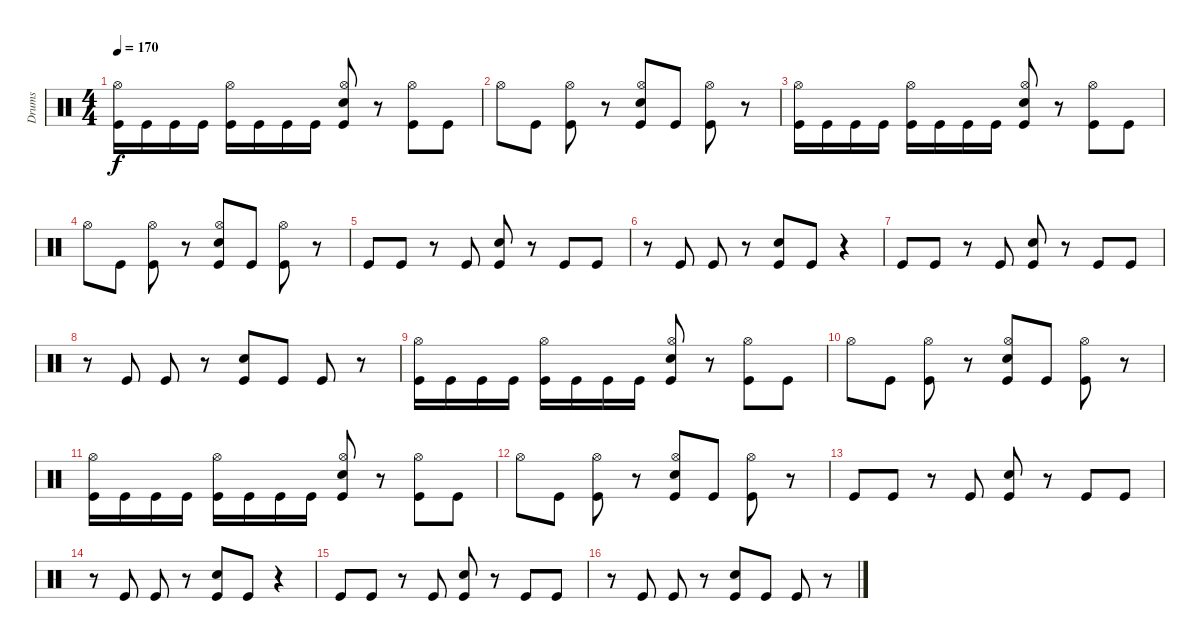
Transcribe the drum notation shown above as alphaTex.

\track ("Drums" "Drums") {instrument percussion}
\staff {score}
\articulation defaults
\ts (4 4)
\tempo 170
\clef neutral
\ks c
("Kick (hit)" "Hi-Hat (open)").16{dy f} "Kick (hit)".16 "Kick (hit)".16 "Kick (hit)".16 ("Kick (hit)" "Hi-Hat (open)").16 "Kick (hit)".16 "Kick (hit)".16 "Kick (hit)".16 ("Kick (hit)" "Hi-Hat (open)" "Snare (hit) 2").8 r.8 ("Kick (hit)" "Hi-Hat (open)").8 "Kick (hit)".8 |
"Hi-Hat (open)".8 "Kick (hit)".8 ("Kick (hit)" "Hi-Hat (open)").8 r.8 ("Kick (hit)" "Hi-Hat (open)" "Snare (hit) 2").8 "Kick (hit)".8 ("Kick (hit)" "Hi-Hat (open)").8 r.8 |
("Kick (hit)" "Hi-Hat (open)").16 "Kick (hit)".16 "Kick (hit)".16 "Kick (hit)".16 ("Kick (hit)" "Hi-Hat (open)").16 "Kick (hit)".16 "Kick (hit)".16 "Kick (hit)".16 ("Kick (hit)" "Hi-Hat (open)" "Snare (hit) 2").8 r.8 ("Kick (hit)" "Hi-Hat (open)").8 "Kick (hit)".8 |
"Hi-Hat (open)".8 "Kick (hit)".8 ("Kick (hit)" "Hi-Hat (open)").8 r.8 ("Kick (hit)" "Hi-Hat (open)" "Snare (hit) 2").8 "Kick (hit)".8 ("Kick (hit)" "Hi-Hat (open)").8 r.8 |
"Kick (hit)".8 "Kick (hit)".8 r.8 "Kick (hit)".8 ("Kick (hit)" "Snare (hit) 2").8 r.8 "Kick (hit)".8 "Kick (hit)".8 |
r.8 "Kick (hit)".8 "Kick (hit)".8 r.8 ("Snare (hit) 2" "Kick (hit)").8 "Kick (hit)".8 r.4 |
"Kick (hit)".8 "Kick (hit)".8 r.8 "Kick (hit)".8 ("Snare (hit) 2" "Kick (hit)").8 r.8 "Kick (hit)".8 "Kick (hit)".8 |
r.8 "Kick (hit)".8 "Kick (hit)".8 r.8 ("Snare (hit) 2" "Kick (hit)").8 "Kick (hit)".8 "Kick (hit)".8 r.8 |
("Kick (hit)" "Hi-Hat (open)").16 "Kick (hit)".16 "Kick (hit)".16 "Kick (hit)".16 ("Kick (hit)" "Hi-Hat (open)").16 "Kick (hit)".16 "Kick (hit)".16 "Kick (hit)".16 ("Kick (hit)" "Hi-Hat (open)" "Snare (hit) 2").8 r.8 ("Kick (hit)" "Hi-Hat (open)").8 "Kick (hit)".8 |
"Hi-Hat (open)".8 "Kick (hit)".8 ("Kick (hit)" "Hi-Hat (open)").8 r.8 ("Kick (hit)" "Hi-Hat (open)" "Snare (hit) 2").8 "Kick (hit)".8 ("Kick (hit)" "Hi-Hat (open)").8 r.8 |
("Kick (hit)" "Hi-Hat (open)").16 "Kick (hit)".16 "Kick (hit)".16 "Kick (hit)".16 ("Kick (hit)" "Hi-Hat (open)").16 "Kick (hit)".16 "Kick (hit)".16 "Kick (hit)".16 ("Kick (hit)" "Hi-Hat (open)" "Snare (hit) 2").8 r.8 ("Kick (hit)" "Hi-Hat (open)").8 "Kick (hit)".8 |
"Hi-Hat (open)".8 "Kick (hit)".8 ("Kick (hit)" "Hi-Hat (open)").8 r.8 ("Kick (hit)" "Hi-Hat (open)" "Snare (hit) 2").8 "Kick (hit)".8 ("Kick (hit)" "Hi-Hat (open)").8 r.8 |
"Kick (hit)".8 "Kick (hit)".8 r.8 "Kick (hit)".8 ("Kick (hit)" "Snare (hit) 2").8 r.8 "Kick (hit)".8 "Kick (hit)".8 |
r.8 "Kick (hit)".8 "Kick (hit)".8 r.8 ("Snare (hit) 2" "Kick (hit)").8 "Kick (hit)".8 r.4 |
"Kick (hit)".8 "Kick (hit)".8 r.8 "Kick (hit)".8 ("Snare (hit) 2" "Kick (hit)").8 r.8 "Kick (hit)".8 "Kick (hit)".8 |
r.8 "Kick (hit)".8 "Kick (hit)".8 r.8 ("Snare (hit) 2" "Kick (hit)").8 "Kick (hit)".8 "Kick (hit)".8 r.8
